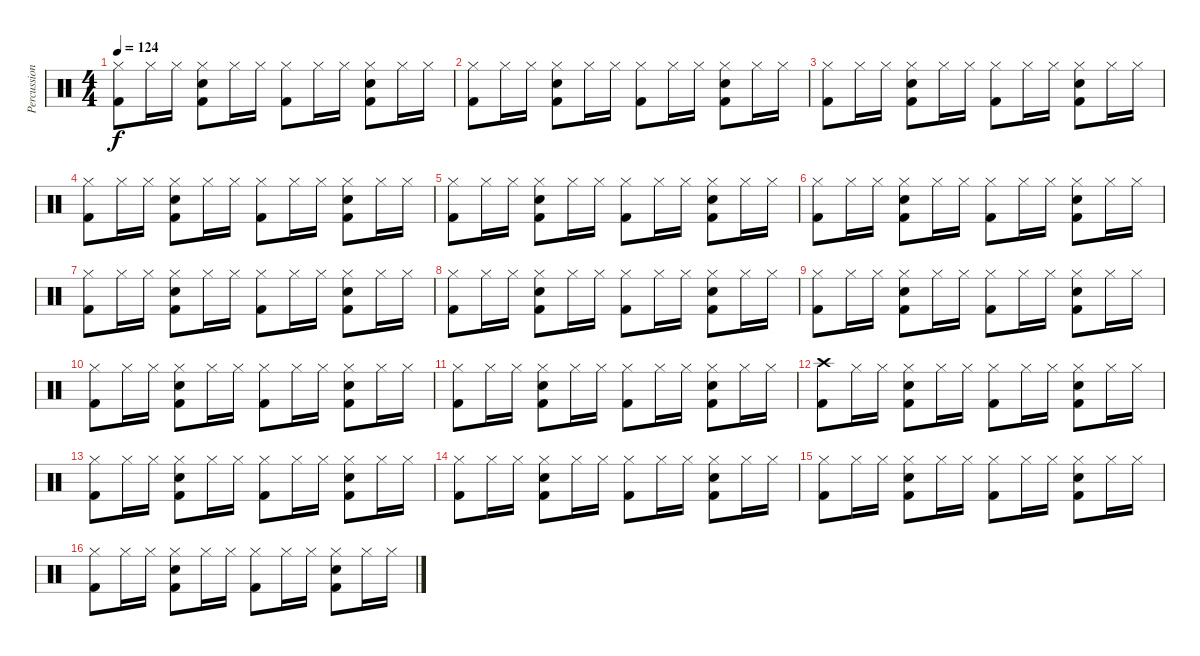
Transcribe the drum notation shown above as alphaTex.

\track ("Percussion" "Percussion") {instrument percussion}
\staff {score}
\articulation defaults
\ts (4 4)
\tempo 124
\clef neutral
\ks c
("Hi-Hat (closed)" "Kick (hit) 2").8{dy f} "Hi-Hat (closed)".16 "Hi-Hat (closed)".16 ("Hi-Hat (closed)" "Snare (hit) 2" "Kick (hit) 2").8 "Hi-Hat (closed)".16 "Hi-Hat (closed)".16 ("Hi-Hat (closed)" "Kick (hit) 2").8 "Hi-Hat (closed)".16 "Hi-Hat (closed)".16 ("Hi-Hat (closed)" "Snare (hit) 2" "Kick (hit) 2").8 "Hi-Hat (closed)".16 "Hi-Hat (closed)".16 |
("Hi-Hat (closed)" "Kick (hit) 2").8 "Hi-Hat (closed)".16 "Hi-Hat (closed)".16 ("Hi-Hat (closed)" "Snare (hit) 2" "Kick (hit) 2").8 "Hi-Hat (closed)".16 "Hi-Hat (closed)".16 ("Hi-Hat (closed)" "Kick (hit) 2").8 "Hi-Hat (closed)".16 "Hi-Hat (closed)".16 ("Hi-Hat (closed)" "Snare (hit) 2" "Kick (hit) 2").8 "Hi-Hat (closed)".16 "Hi-Hat (closed)".16 |
("Hi-Hat (closed)" "Kick (hit) 2").8 "Hi-Hat (closed)".16 "Hi-Hat (closed)".16 ("Hi-Hat (closed)" "Snare (hit) 2" "Kick (hit) 2").8 "Hi-Hat (closed)".16 "Hi-Hat (closed)".16 ("Hi-Hat (closed)" "Kick (hit) 2").8 "Hi-Hat (closed)".16 "Hi-Hat (closed)".16 ("Hi-Hat (closed)" "Snare (hit) 2" "Kick (hit) 2").8 "Hi-Hat (closed)".16 "Hi-Hat (closed)".16 |
("Hi-Hat (closed)" "Kick (hit) 2").8 "Hi-Hat (closed)".16 "Hi-Hat (closed)".16 ("Hi-Hat (closed)" "Snare (hit) 2" "Kick (hit) 2").8 "Hi-Hat (closed)".16 "Hi-Hat (closed)".16 ("Hi-Hat (closed)" "Kick (hit) 2").8 "Hi-Hat (closed)".16 "Hi-Hat (closed)".16 ("Hi-Hat (closed)" "Snare (hit) 2" "Kick (hit) 2").8 "Hi-Hat (closed)".16 "Hi-Hat (closed)".16 |
("Hi-Hat (closed)" "Kick (hit) 2").8 "Hi-Hat (closed)".16 "Hi-Hat (closed)".16 ("Hi-Hat (closed)" "Snare (hit) 2" "Kick (hit) 2").8 "Hi-Hat (closed)".16 "Hi-Hat (closed)".16 ("Hi-Hat (closed)" "Kick (hit) 2").8 "Hi-Hat (closed)".16 "Hi-Hat (closed)".16 ("Hi-Hat (closed)" "Snare (hit) 2" "Kick (hit) 2").8 "Hi-Hat (closed)".16 "Hi-Hat (closed)".16 |
("Hi-Hat (closed)" "Kick (hit) 2").8 "Hi-Hat (closed)".16 "Hi-Hat (closed)".16 ("Hi-Hat (closed)" "Snare (hit) 2" "Kick (hit) 2").8 "Hi-Hat (closed)".16 "Hi-Hat (closed)".16 ("Hi-Hat (closed)" "Kick (hit) 2").8 "Hi-Hat (closed)".16 "Hi-Hat (closed)".16 ("Hi-Hat (closed)" "Snare (hit) 2" "Kick (hit) 2").8 "Hi-Hat (closed)".16 "Hi-Hat (closed)".16 |
("Hi-Hat (closed)" "Kick (hit) 2").8 "Hi-Hat (closed)".16 "Hi-Hat (closed)".16 ("Hi-Hat (closed)" "Snare (hit) 2" "Kick (hit) 2").8 "Hi-Hat (closed)".16 "Hi-Hat (closed)".16 ("Hi-Hat (closed)" "Kick (hit) 2").8 "Hi-Hat (closed)".16 "Hi-Hat (closed)".16 ("Hi-Hat (closed)" "Snare (hit) 2" "Kick (hit) 2").8 "Hi-Hat (closed)".16 "Hi-Hat (closed)".16 |
("Hi-Hat (closed)" "Kick (hit) 2").8 "Hi-Hat (closed)".16 "Hi-Hat (closed)".16 ("Hi-Hat (closed)" "Snare (hit) 2" "Kick (hit) 2").8 "Hi-Hat (closed)".16 "Hi-Hat (closed)".16 ("Hi-Hat (closed)" "Kick (hit) 2").8 "Hi-Hat (closed)".16 "Hi-Hat (closed)".16 ("Hi-Hat (closed)" "Snare (hit) 2" "Kick (hit) 2").8 "Hi-Hat (closed)".16 "Hi-Hat (closed)".16 |
("Hi-Hat (closed)" "Kick (hit) 2").8 "Hi-Hat (closed)".16 "Hi-Hat (closed)".16 ("Hi-Hat (closed)" "Snare (hit) 2" "Kick (hit) 2").8 "Hi-Hat (closed)".16 "Hi-Hat (closed)".16 ("Hi-Hat (closed)" "Kick (hit) 2").8 "Hi-Hat (closed)".16 "Hi-Hat (closed)".16 ("Hi-Hat (closed)" "Snare (hit) 2" "Kick (hit) 2").8 "Hi-Hat (closed)".16 "Hi-Hat (closed)".16 |
("Hi-Hat (closed)" "Kick (hit) 2").8 "Hi-Hat (closed)".16 "Hi-Hat (closed)".16 ("Hi-Hat (closed)" "Snare (hit) 2" "Kick (hit) 2").8 "Hi-Hat (closed)".16 "Hi-Hat (closed)".16 ("Hi-Hat (closed)" "Kick (hit) 2").8 "Hi-Hat (closed)".16 "Hi-Hat (closed)".16 ("Hi-Hat (closed)" "Snare (hit) 2" "Kick (hit) 2").8 "Hi-Hat (closed)".16 "Hi-Hat (closed)".16 |
("Hi-Hat (closed)" "Kick (hit) 2").8 "Hi-Hat (closed)".16 "Hi-Hat (closed)".16 ("Hi-Hat (closed)" "Snare (hit) 2" "Kick (hit) 2").8 "Hi-Hat (closed)".16 "Hi-Hat (closed)".16 ("Hi-Hat (closed)" "Kick (hit) 2").8 "Hi-Hat (closed)".16 "Hi-Hat (closed)".16 ("Hi-Hat (closed)" "Snare (hit) 2" "Kick (hit) 2").8 "Hi-Hat (closed)".16 "Hi-Hat (closed)".16 |
("Crash high (hit)" "Kick (hit) 2").8 "Hi-Hat (closed)".16 "Hi-Hat (closed)".16 ("Hi-Hat (closed)" "Snare (hit) 2" "Kick (hit) 2").8 "Hi-Hat (closed)".16 "Hi-Hat (closed)".16 ("Hi-Hat (closed)" "Kick (hit) 2").8 "Hi-Hat (closed)".16 "Hi-Hat (closed)".16 ("Hi-Hat (closed)" "Snare (hit) 2" "Kick (hit) 2").8 "Hi-Hat (closed)".16 "Hi-Hat (closed)".16 |
("Hi-Hat (closed)" "Kick (hit) 2").8 "Hi-Hat (closed)".16 "Hi-Hat (closed)".16 ("Hi-Hat (closed)" "Snare (hit) 2" "Kick (hit) 2").8 "Hi-Hat (closed)".16 "Hi-Hat (closed)".16 ("Hi-Hat (closed)" "Kick (hit) 2").8 "Hi-Hat (closed)".16 "Hi-Hat (closed)".16 ("Hi-Hat (closed)" "Snare (hit) 2" "Kick (hit) 2").8 "Hi-Hat (closed)".16 "Hi-Hat (closed)".16 |
("Hi-Hat (closed)" "Kick (hit) 2").8 "Hi-Hat (closed)".16 "Hi-Hat (closed)".16 ("Hi-Hat (closed)" "Snare (hit) 2" "Kick (hit) 2").8 "Hi-Hat (closed)".16 "Hi-Hat (closed)".16 ("Hi-Hat (closed)" "Kick (hit) 2").8 "Hi-Hat (closed)".16 "Hi-Hat (closed)".16 ("Hi-Hat (closed)" "Snare (hit) 2" "Kick (hit) 2").8 "Hi-Hat (closed)".16 "Hi-Hat (closed)".16 |
("Hi-Hat (closed)" "Kick (hit) 2").8 "Hi-Hat (closed)".16 "Hi-Hat (closed)".16 ("Hi-Hat (closed)" "Snare (hit) 2" "Kick (hit) 2").8 "Hi-Hat (closed)".16 "Hi-Hat (closed)".16 ("Hi-Hat (closed)" "Kick (hit) 2").8 "Hi-Hat (closed)".16 "Hi-Hat (closed)".16 ("Hi-Hat (closed)" "Snare (hit) 2" "Kick (hit) 2").8 "Hi-Hat (closed)".16 "Hi-Hat (closed)".16 |
("Hi-Hat (closed)" "Kick (hit) 2").8 "Hi-Hat (closed)".16 "Hi-Hat (closed)".16 ("Hi-Hat (closed)" "Snare (hit) 2" "Kick (hit) 2").8 "Hi-Hat (closed)".16 "Hi-Hat (closed)".16 ("Hi-Hat (closed)" "Kick (hit) 2").8 "Hi-Hat (closed)".16 "Hi-Hat (closed)".16 ("Hi-Hat (closed)" "Snare (hit) 2" "Kick (hit) 2").8 "Hi-Hat (closed)".16 "Hi-Hat (closed)".16
